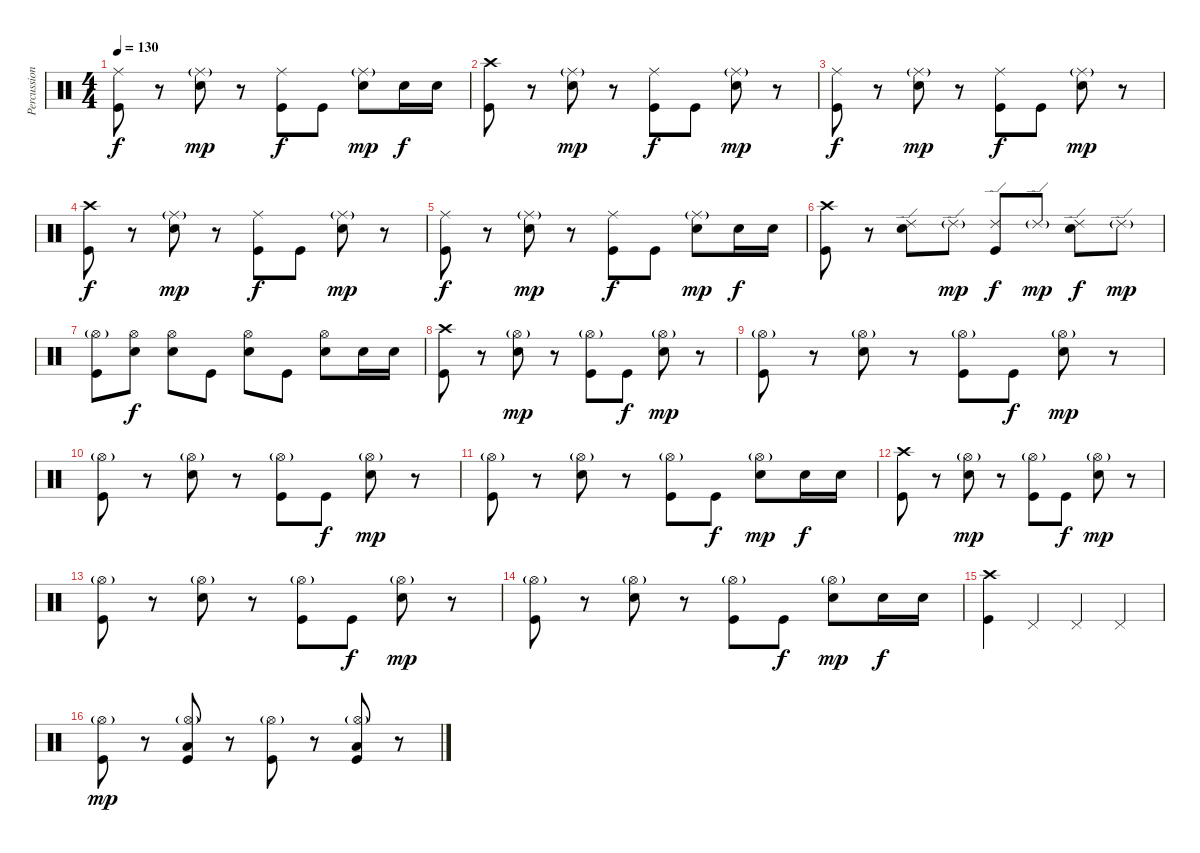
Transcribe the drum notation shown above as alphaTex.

\track ("Percussion" "Percussion") {instrument percussion}
\staff {score}
\articulation defaults
\ts (4 4)
\tempo 130
\clef neutral
\ks c
("Ride (middle)" "Kick (hit)").8{dy f} r.8 ("Ride (middle)"{g} "Electric Snare (hit)").8{dy mp} r.8 ("Ride (middle)" "Kick (hit)").8{dy f} "Kick (hit)".8 ("Ride (middle)"{g} "Electric Snare (hit)").8{dy mp} "Electric Snare (hit)".16{dy f} "Electric Snare (hit)".16 |
("Crash high (hit)" "Kick (hit)").8 r.8 ("Ride (middle)"{g} "Electric Snare (hit)").8{dy mp} r.8 ("Ride (middle)" "Kick (hit)").8{dy f} "Kick (hit)".8 ("Ride (middle)"{g} "Electric Snare (hit)").8{dy mp} r.8 |
("Ride (middle)" "Kick (hit)").8{dy f} r.8 ("Ride (middle)"{g} "Electric Snare (hit)").8{dy mp} r.8 ("Ride (middle)" "Kick (hit)").8{dy f} "Kick (hit)".8 ("Ride (middle)"{g} "Electric Snare (hit)").8{dy mp} r.8 |
("Crash high (hit)" "Kick (hit)").8{dy f} r.8 ("Ride (middle)"{g} "Electric Snare (hit)").8{dy mp} r.8 ("Ride (middle)" "Kick (hit)").8{dy f} "Kick (hit)".8 ("Ride (middle)"{g} "Electric Snare (hit)").8{dy mp} r.8 |
("Ride (middle)" "Kick (hit)").8{dy f} r.8 ("Ride (middle)"{g} "Electric Snare (hit)").8{dy mp} r.8 ("Ride (middle)" "Kick (hit)").8{dy f} "Kick (hit)".8 ("Ride (middle)"{g} "Electric Snare (hit)").8{dy mp} "Electric Snare (hit)".16{dy f} "Electric Snare (hit)".16 |
("Crash high (hit)" "Kick (hit)").8 r.8 ("Ride (edge) 2" "Electric Snare (hit)").8 "Ride (edge) 2"{g}.8{dy mp} ("Ride (edge) 2" "Kick (hit)").8{dy f} "Ride (edge) 2"{g}.8{dy mp} ("Ride (edge) 2" "Electric Snare (hit)").8{dy f} "Ride (edge) 2"{g}.8{dy mp} |
("Hi-Hat (open)"{g} "Kick (hit)").8 ("Hi-Hat (open)" "Electric Snare (hit)").8{dy f} ("Hi-Hat (open)" "Electric Snare (hit)").8 "Kick (hit)".8 ("Hi-Hat (open)" "Electric Snare (hit)").8 "Kick (hit)".8 ("Hi-Hat (open)" "Electric Snare (hit)").8 "Electric Snare (hit)".16 "Electric Snare (hit)".16 |
("Crash high (hit)" "Kick (hit)").8 r.8 ("Hi-Hat (open)"{g} "Electric Snare (hit)").8{dy mp} r.8 ("Hi-Hat (open)"{g} "Kick (hit)").8 "Kick (hit)".8{dy f} ("Hi-Hat (open)"{g} "Electric Snare (hit)").8{dy mp} r.8 |
("Hi-Hat (open)"{g} "Kick (hit)").8 r.8 ("Hi-Hat (open)"{g} "Electric Snare (hit)").8 r.8 ("Hi-Hat (open)"{g} "Kick (hit)").8 "Kick (hit)".8{dy f} ("Hi-Hat (open)"{g} "Electric Snare (hit)").8{dy mp} r.8 |
("Hi-Hat (open)"{g} "Kick (hit)").8 r.8 ("Hi-Hat (open)"{g} "Electric Snare (hit)").8 r.8 ("Hi-Hat (open)"{g} "Kick (hit)").8 "Kick (hit)".8{dy f} ("Hi-Hat (open)"{g} "Electric Snare (hit)").8{dy mp} r.8 |
("Hi-Hat (open)"{g} "Kick (hit)").8 r.8 ("Hi-Hat (open)"{g} "Electric Snare (hit)").8 r.8 ("Hi-Hat (open)"{g} "Kick (hit)").8 "Kick (hit)".8{dy f} ("Hi-Hat (open)"{g} "Electric Snare (hit)").8{dy mp} "Electric Snare (hit)".16{dy f} "Electric Snare (hit)".16 |
("Crash high (hit)" "Kick (hit)").8 r.8 ("Hi-Hat (open)"{g} "Electric Snare (hit)").8{dy mp} r.8 ("Hi-Hat (open)"{g} "Kick (hit)").8 "Kick (hit)".8{dy f} ("Hi-Hat (open)"{g} "Electric Snare (hit)").8{dy mp} r.8 |
("Hi-Hat (open)"{g} "Kick (hit)").8 r.8 ("Hi-Hat (open)"{g} "Electric Snare (hit)").8 r.8 ("Hi-Hat (open)"{g} "Kick (hit)").8 "Kick (hit)".8{dy f} ("Hi-Hat (open)"{g} "Electric Snare (hit)").8{dy mp} r.8 |
("Hi-Hat (open)"{g} "Kick (hit)").8 r.8 ("Hi-Hat (open)"{g} "Electric Snare (hit)").8 r.8 ("Hi-Hat (open)"{g} "Kick (hit)").8 "Kick (hit)".8{dy f} ("Hi-Hat (open)"{g} "Electric Snare (hit)").8{dy mp} "Electric Snare (hit)".16{dy f} "Electric Snare (hit)".16 |
("Crash high (hit)" "Kick (hit)").4 "Pedal Hi-Hat (hit)".4 "Pedal Hi-Hat (hit)".4 "Pedal Hi-Hat (hit)".4 |
("Hi-Hat (open)"{g} "Kick (hit)").8{dy mp} r.8 ("Hi-Hat (open)"{g} "Low Tom (hit)" "Kick (hit)").8 r.8 ("Hi-Hat (open)"{g} "Kick (hit)").8 r.8 ("Hi-Hat (open)"{g} "Low Tom (hit)" "Kick (hit)").8 r.8
